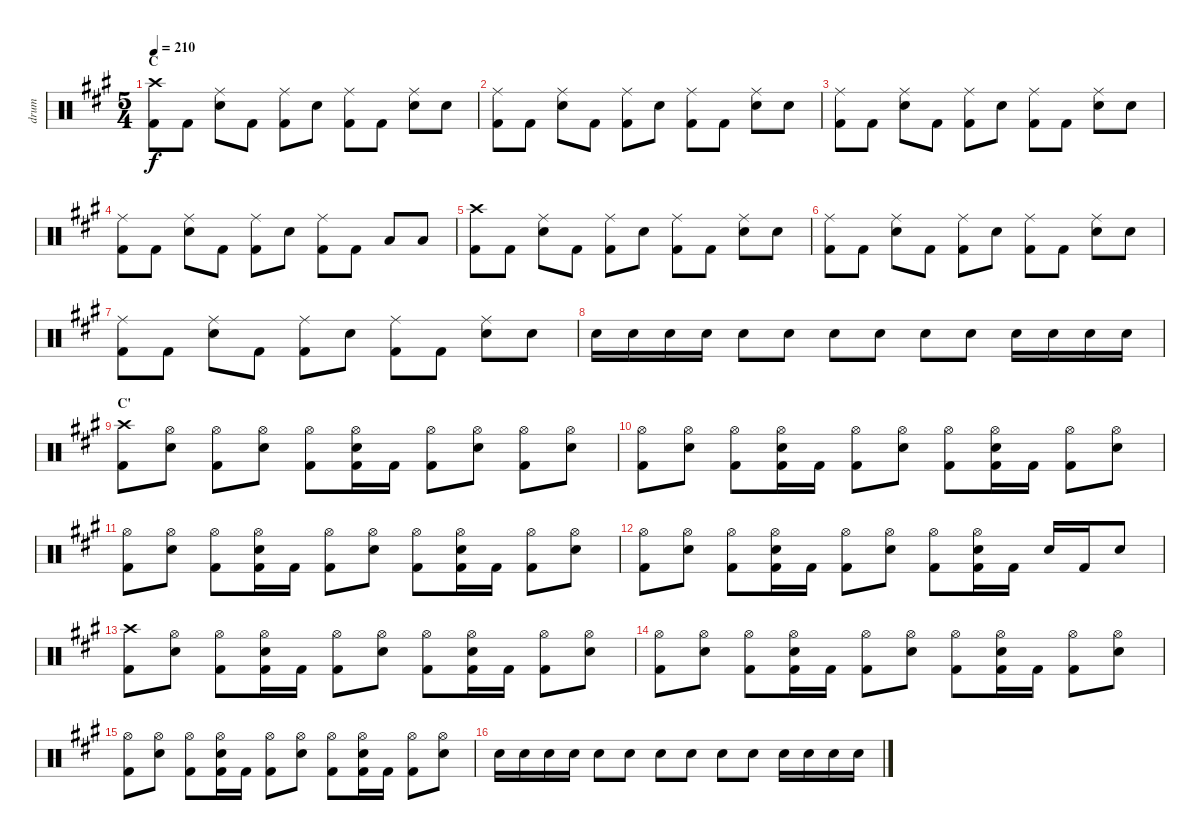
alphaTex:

\track ("drum" "drum") {instrument percussion}
\staff {score}
\articulation defaults
\ts (5 4)
\section ("" "C")
\tempo 210
\clef neutral
\ks a
("Crash high (hit)" "Kick (hit) 2").8{dy f} "Kick (hit) 2".8 ("Ride (middle)" "Electric Snare (hit)").8 "Kick (hit) 2".8 ("Ride (middle)" "Kick (hit) 2").8 "Electric Snare (hit)".8 ("Ride (middle)" "Kick (hit) 2").8 "Kick (hit) 2".8 ("Ride (middle)" "Electric Snare (hit)").8 "Electric Snare (hit)".8 |
("Ride (middle)" "Kick (hit) 2").8 "Kick (hit) 2".8 ("Ride (middle)" "Electric Snare (hit)").8 "Kick (hit) 2".8 ("Ride (middle)" "Kick (hit) 2").8 "Electric Snare (hit)".8 ("Ride (middle)" "Kick (hit) 2").8 "Kick (hit) 2".8 ("Ride (middle)" "Electric Snare (hit)").8 "Electric Snare (hit)".8 |
("Ride (middle)" "Kick (hit) 2").8 "Kick (hit) 2".8 ("Ride (middle)" "Electric Snare (hit)").8 "Kick (hit) 2".8 ("Ride (middle)" "Kick (hit) 2").8 "Electric Snare (hit)".8 ("Ride (middle)" "Kick (hit) 2").8 "Kick (hit) 2".8 ("Ride (middle)" "Electric Snare (hit)").8 "Electric Snare (hit)".8 |
("Ride (middle)" "Kick (hit) 2").8 "Kick (hit) 2".8 ("Ride (middle)" "Electric Snare (hit)").8 "Kick (hit) 2".8 ("Ride (middle)" "Kick (hit) 2").8 "Electric Snare (hit)".8 ("Ride (middle)" "Kick (hit) 2").8 "Kick (hit) 2".8 "Low Tom (hit)".8 "Low Tom (hit)".8 |
("Crash high (hit)" "Kick (hit) 2").8 "Kick (hit) 2".8 ("Ride (middle)" "Electric Snare (hit)").8 "Kick (hit) 2".8 ("Ride (middle)" "Kick (hit) 2").8 "Electric Snare (hit)".8 ("Ride (middle)" "Kick (hit) 2").8 "Kick (hit) 2".8 ("Ride (middle)" "Electric Snare (hit)").8 "Electric Snare (hit)".8 |
("Ride (middle)" "Kick (hit) 2").8 "Kick (hit) 2".8 ("Ride (middle)" "Electric Snare (hit)").8 "Kick (hit) 2".8 ("Ride (middle)" "Kick (hit) 2").8 "Electric Snare (hit)".8 ("Ride (middle)" "Kick (hit) 2").8 "Kick (hit) 2".8 ("Ride (middle)" "Electric Snare (hit)").8 "Electric Snare (hit)".8 |
("Ride (middle)" "Kick (hit) 2").8 "Kick (hit) 2".8 ("Ride (middle)" "Electric Snare (hit)").8 "Kick (hit) 2".8 ("Ride (middle)" "Kick (hit) 2").8 "Electric Snare (hit)".8 ("Ride (middle)" "Kick (hit) 2").8 "Kick (hit) 2".8 ("Ride (middle)" "Electric Snare (hit)").8 "Electric Snare (hit)".8 |
"Electric Snare (hit)".16 "Electric Snare (hit)".16 "Electric Snare (hit)".16 "Electric Snare (hit)".16 "Electric Snare (hit)".8 "Electric Snare (hit)".8 "Electric Snare (hit)".8 "Electric Snare (hit)".8 "Electric Snare (hit)".8 "Electric Snare (hit)".8 "Electric Snare (hit)".16 "Electric Snare (hit)".16 "Electric Snare (hit)".16 "Electric Snare (hit)".16 |
\section ("" "C'")
("Crash high (hit)" "Kick (hit) 2").8 ("Hi-Hat (open)" "Electric Snare (hit)").8 ("Hi-Hat (open)" "Kick (hit) 2").8 ("Hi-Hat (open)" "Electric Snare (hit)").8 ("Hi-Hat (open)" "Kick (hit) 2").8 ("Hi-Hat (open)" "Electric Snare (hit)" "Kick (hit) 2").16 "Kick (hit) 2".16 ("Hi-Hat (open)" "Kick (hit) 2").8 ("Hi-Hat (open)" "Electric Snare (hit)").8 ("Hi-Hat (open)" "Kick (hit) 2").8 ("Hi-Hat (open)" "Electric Snare (hit)").8 |
("Hi-Hat (open)" "Kick (hit) 2").8 ("Hi-Hat (open)" "Electric Snare (hit)").8 ("Hi-Hat (open)" "Kick (hit) 2").8 ("Hi-Hat (open)" "Electric Snare (hit)" "Kick (hit) 2").16 "Kick (hit) 2".16 ("Hi-Hat (open)" "Kick (hit) 2").8 ("Hi-Hat (open)" "Electric Snare (hit)").8 ("Hi-Hat (open)" "Kick (hit) 2").8 ("Hi-Hat (open)" "Electric Snare (hit)" "Kick (hit) 2").16 "Kick (hit) 2".16 ("Hi-Hat (open)" "Kick (hit) 2").8 ("Hi-Hat (open)" "Electric Snare (hit)").8 |
("Hi-Hat (open)" "Kick (hit) 2").8 ("Hi-Hat (open)" "Electric Snare (hit)").8 ("Hi-Hat (open)" "Kick (hit) 2").8 ("Hi-Hat (open)" "Electric Snare (hit)" "Kick (hit) 2").16 "Kick (hit) 2".16 ("Hi-Hat (open)" "Kick (hit) 2").8 ("Hi-Hat (open)" "Electric Snare (hit)").8 ("Hi-Hat (open)" "Kick (hit) 2").8 ("Hi-Hat (open)" "Electric Snare (hit)" "Kick (hit) 2").16 "Kick (hit) 2".16 ("Hi-Hat (open)" "Kick (hit) 2").8 ("Hi-Hat (open)" "Electric Snare (hit)").8 |
("Hi-Hat (open)" "Kick (hit) 2").8 ("Hi-Hat (open)" "Electric Snare (hit)").8 ("Hi-Hat (open)" "Kick (hit) 2").8 ("Hi-Hat (open)" "Electric Snare (hit)" "Kick (hit) 2").16 "Kick (hit) 2".16 ("Hi-Hat (open)" "Kick (hit) 2").8 ("Hi-Hat (open)" "Electric Snare (hit)").8 ("Hi-Hat (open)" "Kick (hit) 2").8 ("Hi-Hat (open)" "Electric Snare (hit)" "Kick (hit) 2").16 "Kick (hit) 2".16 "Electric Snare (hit)".16 "Kick (hit) 2".16 "Electric Snare (hit)".8 |
("Crash high (hit)" "Kick (hit) 2").8 ("Hi-Hat (open)" "Electric Snare (hit)").8 ("Hi-Hat (open)" "Kick (hit) 2").8 ("Hi-Hat (open)" "Electric Snare (hit)" "Kick (hit) 2").16 "Kick (hit) 2".16 ("Hi-Hat (open)" "Kick (hit) 2").8 ("Hi-Hat (open)" "Electric Snare (hit)").8 ("Hi-Hat (open)" "Kick (hit) 2").8 ("Hi-Hat (open)" "Electric Snare (hit)" "Kick (hit) 2").16 "Kick (hit) 2".16 ("Hi-Hat (open)" "Kick (hit) 2").8 ("Hi-Hat (open)" "Electric Snare (hit)").8 |
("Hi-Hat (open)" "Kick (hit) 2").8 ("Hi-Hat (open)" "Electric Snare (hit)").8 ("Hi-Hat (open)" "Kick (hit) 2").8 ("Hi-Hat (open)" "Electric Snare (hit)" "Kick (hit) 2").16 "Kick (hit) 2".16 ("Hi-Hat (open)" "Kick (hit) 2").8 ("Hi-Hat (open)" "Electric Snare (hit)").8 ("Hi-Hat (open)" "Kick (hit) 2").8 ("Hi-Hat (open)" "Electric Snare (hit)" "Kick (hit) 2").16 "Kick (hit) 2".16 ("Hi-Hat (open)" "Kick (hit) 2").8 ("Hi-Hat (open)" "Electric Snare (hit)").8 |
("Hi-Hat (open)" "Kick (hit) 2").8 ("Hi-Hat (open)" "Electric Snare (hit)").8 ("Hi-Hat (open)" "Kick (hit) 2").8 ("Hi-Hat (open)" "Electric Snare (hit)" "Kick (hit) 2").16 "Kick (hit) 2".16 ("Hi-Hat (open)" "Kick (hit) 2").8 ("Hi-Hat (open)" "Electric Snare (hit)").8 ("Hi-Hat (open)" "Kick (hit) 2").8 ("Hi-Hat (open)" "Electric Snare (hit)" "Kick (hit) 2").16 "Kick (hit) 2".16 ("Hi-Hat (open)" "Kick (hit) 2").8 ("Hi-Hat (open)" "Electric Snare (hit)").8 |
"Electric Snare (hit)".16 "Electric Snare (hit)".16 "Electric Snare (hit)".16 "Electric Snare (hit)".16 "Electric Snare (hit)".8 "Electric Snare (hit)".8 "Electric Snare (hit)".8 "Electric Snare (hit)".8 "Electric Snare (hit)".8 "Electric Snare (hit)".8 "Electric Snare (hit)".16 "Electric Snare (hit)".16 "Electric Snare (hit)".16 "Electric Snare (hit)".16
